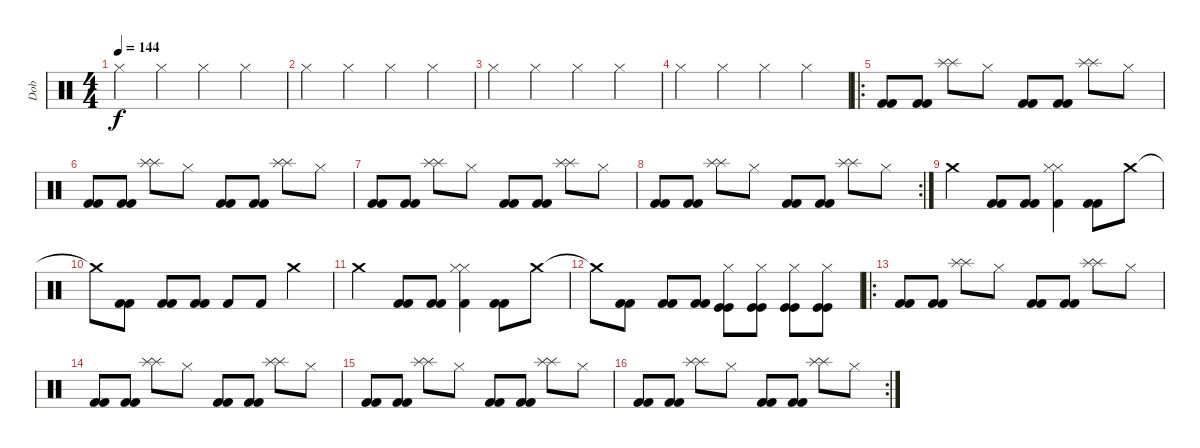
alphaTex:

\track ("Dob" "Dob") {instrument percussion}
\staff {score}
\articulation defaults
\ts (4 4)
\tempo 144
\clef neutral
\ks c "Hi-Hat (closed)".4{dy f} "Hi-Hat (closed)".4 "Hi-Hat (closed)".4 "Hi-Hat (closed)".4
|
"Hi-Hat (closed)".4 "Hi-Hat (closed)".4 "Hi-Hat (closed)".4 "Hi-Hat (closed)".4 |
"Hi-Hat (closed)".4 "Hi-Hat (closed)".4 "Hi-Hat (closed)".4 "Hi-Hat (closed)".4 |
"Hi-Hat (closed)".4 "Hi-Hat (closed)".4 "Hi-Hat (closed)".4 "Hi-Hat (closed)".4 |
\ro
("Kick (hit) 2" "Kick (hit) 2").8 ("Kick (hit) 2" "Kick (hit) 2").8 ("Splash (hit)" "Splash (hit)").8 "Hi-Hat (closed)".8 ("Kick (hit) 2" "Kick (hit) 2").8 ("Kick (hit) 2" "Kick (hit) 2").8 ("Splash (hit)" "Splash (hit)").8 "Hi-Hat (closed)".8 |
("Kick (hit) 2" "Kick (hit) 2").8 ("Kick (hit) 2" "Kick (hit) 2").8 ("Splash (hit)" "Splash (hit)").8 "Hi-Hat (closed)".8 ("Kick (hit) 2" "Kick (hit) 2").8 ("Kick (hit) 2" "Kick (hit) 2").8 ("Splash (hit)" "Splash (hit)").8 "Hi-Hat (closed)".8 |
("Kick (hit) 2" "Kick (hit) 2").8 ("Kick (hit) 2" "Kick (hit) 2").8 ("Splash (hit)" "Splash (hit)").8 "Hi-Hat (closed)".8 ("Kick (hit) 2" "Kick (hit) 2").8 ("Kick (hit) 2" "Kick (hit) 2").8 ("Splash (hit)" "Splash (hit)").8 "Hi-Hat (closed)".8 |
\rc 2
("Kick (hit) 2" "Kick (hit) 2").8 ("Kick (hit) 2" "Kick (hit) 2").8 ("Splash (hit)" "Splash (hit)").8 "Hi-Hat (closed)".8 ("Kick (hit) 2" "Kick (hit) 2").8 ("Kick (hit) 2" "Kick (hit) 2").8 ("Splash (hit)" "Splash (hit)").8 "Hi-Hat (closed)".8 |
"Crash medium (hit)".4 ("Kick (hit) 2" "Kick (hit) 2").8 ("Kick (hit) 2" "Kick (hit) 2").8 ("Hi-Hat (closed)" "Hi-Hat (closed)" "Kick (hit) 2").4 ("Kick (hit) 2" "Kick (hit) 2").8 "Crash medium (hit)".8 |
"Crash medium (hit)"{t}.8 ("Kick (hit) 2" "Kick (hit) 2").8 ("Kick (hit) 2" "Kick (hit) 2").8 ("Kick (hit) 2" "Kick (hit) 2").8 "Kick (hit) 2".8 "Kick (hit) 2".8 "Crash medium (hit)".4 |
"Crash medium (hit)".4 ("Kick (hit) 2" "Kick (hit) 2").8 ("Kick (hit) 2" "Kick (hit) 2").8 ("Hi-Hat (closed)" "Hi-Hat (closed)" "Kick (hit) 2").4 ("Kick (hit) 2" "Kick (hit) 2").8 "Crash medium (hit)".8 |
"Crash medium (hit)"{t}.8 ("Kick (hit) 2" "Kick (hit) 2").8 ("Kick (hit) 2" "Kick (hit) 2").8 ("Kick (hit) 2" "Kick (hit) 2").8 ("Hi-Hat (closed)" "Kick (hit)" "Kick (hit)").8 ("Hi-Hat (closed)" "Kick (hit)" "Kick (hit)").8 ("Hi-Hat (closed)" "Kick (hit)" "Kick (hit)").8 ("Hi-Hat (closed)" "Kick (hit)" "Kick (hit)").8 |
\ro
("Kick (hit) 2" "Kick (hit) 2").8 ("Kick (hit) 2" "Kick (hit) 2").8 ("Splash (hit)" "Splash (hit)").8 "Hi-Hat (closed)".8 ("Kick (hit) 2" "Kick (hit) 2").8 ("Kick (hit) 2" "Kick (hit) 2").8 ("Splash (hit)" "Splash (hit)").8 "Hi-Hat (closed)".8 |
("Kick (hit) 2" "Kick (hit) 2").8 ("Kick (hit) 2" "Kick (hit) 2").8 ("Splash (hit)" "Splash (hit)").8 "Hi-Hat (closed)".8 ("Kick (hit) 2" "Kick (hit) 2").8 ("Kick (hit) 2" "Kick (hit) 2").8 ("Splash (hit)" "Splash (hit)").8 "Hi-Hat (closed)".8 |
("Kick (hit) 2" "Kick (hit) 2").8 ("Kick (hit) 2" "Kick (hit) 2").8 ("Splash (hit)" "Splash (hit)").8 "Hi-Hat (closed)".8 ("Kick (hit) 2" "Kick (hit) 2").8 ("Kick (hit) 2" "Kick (hit) 2").8 ("Splash (hit)" "Splash (hit)").8 "Hi-Hat (closed)".8 |
\rc 2
("Kick (hit) 2" "Kick (hit) 2").8 ("Kick (hit) 2" "Kick (hit) 2").8 ("Splash (hit)" "Splash (hit)").8 "Hi-Hat (closed)".8 ("Kick (hit) 2" "Kick (hit) 2").8 ("Kick (hit) 2" "Kick (hit) 2").8 ("Splash (hit)" "Splash (hit)").8 "Hi-Hat (closed)".8
